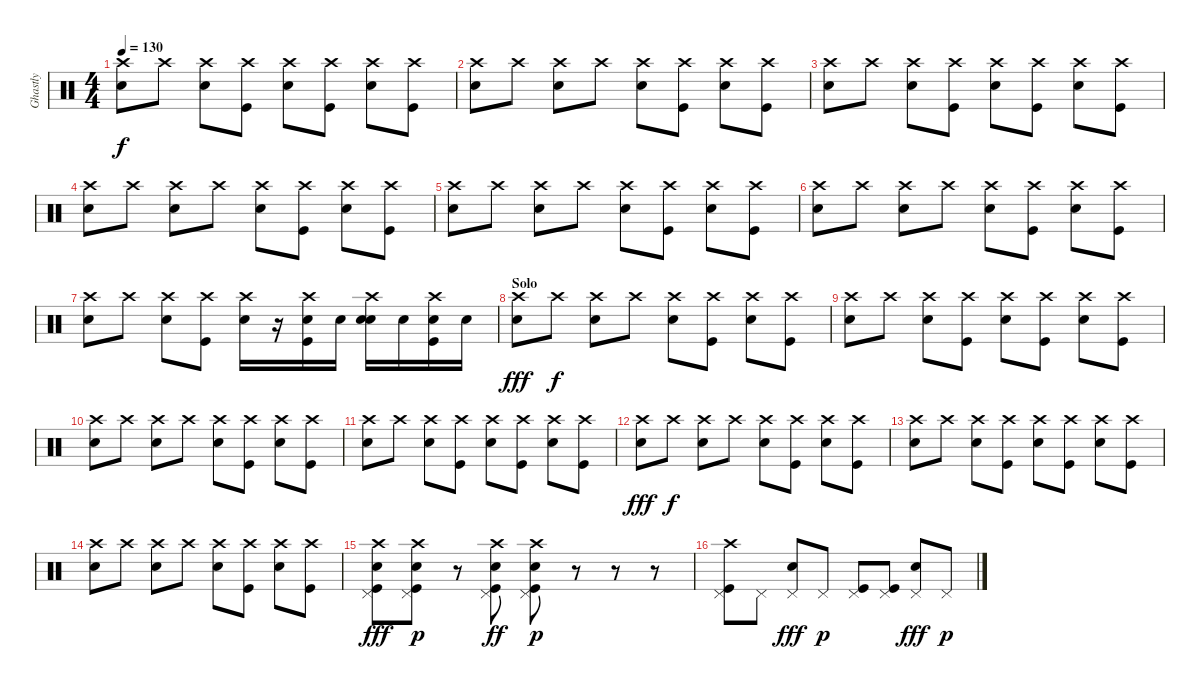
\track ("Ghastly" "Ghastly") {instrument percussion}
\staff {score}
\articulation defaults
\ts (4 4)
\tempo 130
\clef neutral
\ks c
("Crash high (hit)" "Electric Snare (hit)").8{dy f} "Crash high (hit)".8 ("Crash high (hit)" "Electric Snare (hit)").8 ("Crash high (hit)" "Kick (hit)").8 ("Crash high (hit)" "Electric Snare (hit)").8 ("Crash high (hit)" "Kick (hit)").8 ("Crash high (hit)" "Electric Snare (hit)").8 ("Crash high (hit)" "Kick (hit)").8 |
("Crash high (hit)" "Electric Snare (hit)").8 "Crash high (hit)".8 ("Crash high (hit)" "Electric Snare (hit)").8 "Crash high (hit)".8 ("Crash high (hit)" "Electric Snare (hit)").8 ("Crash high (hit)" "Kick (hit)").8 ("Crash high (hit)" "Electric Snare (hit)").8 ("Crash high (hit)" "Kick (hit)").8 |
("Crash high (hit)" "Electric Snare (hit)").8 "Crash high (hit)".8 ("Crash high (hit)" "Electric Snare (hit)").8 ("Crash high (hit)" "Kick (hit)").8 ("Crash high (hit)" "Electric Snare (hit)").8 ("Crash high (hit)" "Kick (hit)").8 ("Crash high (hit)" "Electric Snare (hit)").8 ("Crash high (hit)" "Kick (hit)").8 |
("Crash high (hit)" "Electric Snare (hit)").8 "Crash high (hit)".8 ("Crash high (hit)" "Electric Snare (hit)").8 "Crash high (hit)".8 ("Crash high (hit)" "Electric Snare (hit)").8 ("Crash high (hit)" "Kick (hit)").8 ("Crash high (hit)" "Electric Snare (hit)").8 ("Crash high (hit)" "Kick (hit)").8 |
("Crash high (hit)" "Electric Snare (hit)").8 "Crash high (hit)".8 ("Crash high (hit)" "Electric Snare (hit)").8 "Crash high (hit)".8 ("Crash high (hit)" "Electric Snare (hit)").8 ("Crash high (hit)" "Kick (hit)").8 ("Crash high (hit)" "Electric Snare (hit)").8 ("Crash high (hit)" "Kick (hit)").8 |
("Crash high (hit)" "Electric Snare (hit)").8 "Crash high (hit)".8 ("Crash high (hit)" "Electric Snare (hit)").8 "Crash high (hit)".8 ("Crash high (hit)" "Electric Snare (hit)").8 ("Crash high (hit)" "Kick (hit)").8 ("Crash high (hit)" "Electric Snare (hit)").8 ("Crash high (hit)" "Kick (hit)").8 |
("Crash high (hit)" "Electric Snare (hit)").8 "Crash high (hit)".8 ("Crash high (hit)" "Electric Snare (hit)").8 ("Crash high (hit)" "Kick (hit)").8 ("Crash high (hit)" "Electric Snare (hit)").16 r.16 ("Crash high (hit)" "Kick (hit)" "Electric Snare (hit)").16 "Electric Snare (hit)".16 ("Crash high (hit)" "Electric Snare (hit)" "Electric Snare (hit)").16 "Electric Snare (hit)".16 ("Crash high (hit)" "Kick (hit)" "Electric Snare (hit)").16 "Electric Snare (hit)".16 |
\section ("" "Solo")
("Crash high (hit)" "Electric Snare (hit)").8{dy fff} "Crash high (hit)".8{dy f} ("Crash high (hit)" "Electric Snare (hit)").8 "Crash high (hit)".8 ("Crash high (hit)" "Electric Snare (hit)").8 ("Crash high (hit)" "Kick (hit)").8 ("Crash high (hit)" "Electric Snare (hit)").8 ("Crash high (hit)" "Kick (hit)").8 |
("Crash high (hit)" "Electric Snare (hit)").8 "Crash high (hit)".8 ("Crash high (hit)" "Electric Snare (hit)").8 ("Crash high (hit)" "Kick (hit)").8 ("Crash high (hit)" "Electric Snare (hit)").8 ("Crash high (hit)" "Kick (hit)").8 ("Crash high (hit)" "Electric Snare (hit)").8 ("Crash high (hit)" "Kick (hit)").8 |
("Crash high (hit)" "Electric Snare (hit)").8 "Crash high (hit)".8 ("Crash high (hit)" "Electric Snare (hit)").8 "Crash high (hit)".8 ("Crash high (hit)" "Electric Snare (hit)").8 ("Crash high (hit)" "Kick (hit)").8 ("Crash high (hit)" "Electric Snare (hit)").8 ("Crash high (hit)" "Kick (hit)").8 |
("Crash high (hit)" "Electric Snare (hit)").8 "Crash high (hit)".8 ("Crash high (hit)" "Electric Snare (hit)").8 ("Crash high (hit)" "Kick (hit)").8 ("Crash high (hit)" "Electric Snare (hit)").8 ("Crash high (hit)" "Kick (hit)").8 ("Crash high (hit)" "Electric Snare (hit)").8 ("Crash high (hit)" "Kick (hit)").8 |
("Crash high (hit)" "Electric Snare (hit)").8{dy fff} "Crash high (hit)".8{dy f} ("Crash high (hit)" "Electric Snare (hit)").8 "Crash high (hit)".8 ("Crash high (hit)" "Electric Snare (hit)").8 ("Crash high (hit)" "Kick (hit)").8 ("Crash high (hit)" "Electric Snare (hit)").8 ("Crash high (hit)" "Kick (hit)").8 |
("Crash high (hit)" "Electric Snare (hit)").8 "Crash high (hit)".8 ("Crash high (hit)" "Electric Snare (hit)").8 ("Crash high (hit)" "Kick (hit)").8 ("Crash high (hit)" "Electric Snare (hit)").8 ("Crash high (hit)" "Kick (hit)").8 ("Crash high (hit)" "Electric Snare (hit)").8 ("Crash high (hit)" "Kick (hit)").8 |
("Crash high (hit)" "Electric Snare (hit)").8 "Crash high (hit)".8 ("Crash high (hit)" "Electric Snare (hit)").8 "Crash high (hit)".8 ("Crash high (hit)" "Electric Snare (hit)").8 ("Crash high (hit)" "Kick (hit)").8 ("Crash high (hit)" "Electric Snare (hit)").8 ("Crash high (hit)" "Kick (hit)").8 |
("Crash high (hit)" "Pedal Hi-Hat (hit)" "Kick (hit)" "Electric Snare (hit)").8{dy fff} ("Crash high (hit)" "Pedal Hi-Hat (hit)" "Kick (hit)" "Electric Snare (hit)").8{dy p} r.8 ("Crash high (hit)" "Pedal Hi-Hat (hit)" "Kick (hit)" "Electric Snare (hit)").8{dy ff} ("Crash high (hit)" "Pedal Hi-Hat (hit)" "Kick (hit)" "Electric Snare (hit)").8{dy p} r.8 r.8 r.8 |
("Crash high (hit)" "Pedal Hi-Hat (hit)" "Kick (hit)").8 "Pedal Hi-Hat (hit)".8 ("Pedal Hi-Hat (hit)" "Electric Snare (hit)").8{dy fff} "Pedal Hi-Hat (hit)".8{dy p} ("Pedal Hi-Hat (hit)" "Kick (hit)").8 ("Pedal Hi-Hat (hit)" "Kick (hit)").8 ("Pedal Hi-Hat (hit)" "Electric Snare (hit)").8{dy fff} "Pedal Hi-Hat (hit)".8{dy p}
